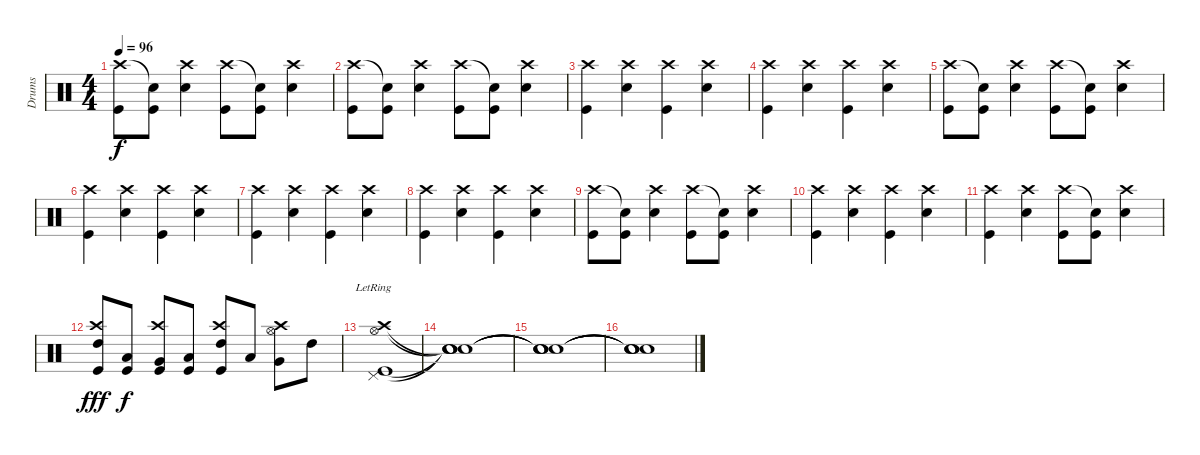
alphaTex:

\track ("Drums" "Drums") {instrument percussion}
\staff {score}
\articulation defaults
\ts (4 4)
\tempo 96
\clef neutral
\ks c
("Kick (hit)" "Crash high (hit)").8{dy f} ("Kick (hit)" "Snare (hit)"{t}).8 ("Snare (hit) 2" "Crash high (hit)").4 ("Kick (hit)" "Crash high (hit)").8 ("Kick (hit)" "Snare (hit)"{t}).8 ("Snare (hit) 2" "Crash high (hit)").4 |
("Kick (hit)" "Crash high (hit)").8 ("Kick (hit)" "Snare (hit)"{t}).8 ("Snare (hit) 2" "Crash high (hit)").4 ("Kick (hit)" "Crash high (hit)").8 ("Kick (hit)" "Snare (hit)"{t}).8 ("Snare (hit) 2" "Crash high (hit)").4 |
("Kick (hit)" "Crash high (hit)").4 ("Snare (hit) 2" "Crash high (hit)").4 ("Kick (hit)" "Crash high (hit)").4 ("Snare (hit) 2" "Crash high (hit)").4 |
("Kick (hit)" "Crash high (hit)").4 ("Snare (hit) 2" "Crash high (hit)").4 ("Kick (hit)" "Crash high (hit)").4 ("Snare (hit) 2" "Crash high (hit)").4 |
("Kick (hit)" "Crash high (hit)").8 ("Kick (hit)" "Snare (hit)"{t}).8 ("Snare (hit) 2" "Crash high (hit)").4 ("Kick (hit)" "Crash high (hit)").8 ("Kick (hit)" "Snare (hit)"{t}).8 ("Snare (hit) 2" "Crash high (hit)").4 |
("Kick (hit)" "Crash high (hit)").4 ("Snare (hit) 2" "Crash high (hit)").4 ("Kick (hit)" "Crash high (hit)").4 ("Snare (hit) 2" "Crash high (hit)").4 |
("Kick (hit)" "Crash high (hit)").4 ("Snare (hit) 2" "Crash high (hit)").4 ("Kick (hit)" "Crash high (hit)").4 ("Snare (hit) 2" "Crash high (hit)").4 |
("Kick (hit)" "Crash high (hit)").4 ("Snare (hit) 2" "Crash high (hit)").4 ("Kick (hit)" "Crash high (hit)").4 ("Snare (hit) 2" "Crash high (hit)").4 |
("Kick (hit)" "Crash high (hit)").8 ("Kick (hit)" "Snare (hit)"{t}).8 ("Snare (hit) 2" "Crash high (hit)").4 ("Kick (hit)" "Crash high (hit)").8 ("Kick (hit)" "Snare (hit)"{t}).8 ("Snare (hit) 2" "Crash high (hit)").4 |
("Kick (hit)" "Crash high (hit)").4 ("Snare (hit) 2" "Crash high (hit)").4 ("Kick (hit)" "Crash high (hit)").4 ("Snare (hit) 2" "Crash high (hit)").4 |
("Kick (hit)" "Crash high (hit)").4 ("Snare (hit) 2" "Crash high (hit)").4 ("Kick (hit)" "Crash high (hit)").8 ("Kick (hit)" "Snare (hit)"{t}).8 ("Snare (hit) 2" "Crash high (hit)").4 |
("High Tom (hit)" "Kick (hit)" "Crash high (hit)").8{dy fff} ("Low Tom (hit)" "Kick (hit)").8{dy f} ("Very Low Tom (hit)" "Kick (hit)" "Crash high (hit)").8 ("Low Tom (hit)" "Kick (hit)").8 ("High Tom (hit)" "Kick (hit)" "Crash high (hit)").8 "Low Tom (hit)".8 ("Very Low Tom (hit)" "Hi-Hat (open)" "Crash high (hit)").8 "High Tom (hit)".8 |
("Crash high (hit)"{lr} "Hi-Hat (open)"{lr} "Pedal Hi-Hat (hit)"{lr} "Kick (hit)"{lr}).1 |
("Snare (hit)"{t} "Snare (hit)"{t} "Snare (hit)"{t} "Snare (hit)"{t}).1 |
("Snare (hit)"{t} "Snare (hit)"{t} "Snare (hit)"{t} "Snare (hit)"{t}).1 |
("Snare (hit)"{t} "Snare (hit)"{t} "Snare (hit)"{t} "Snare (hit)"{t}).1
